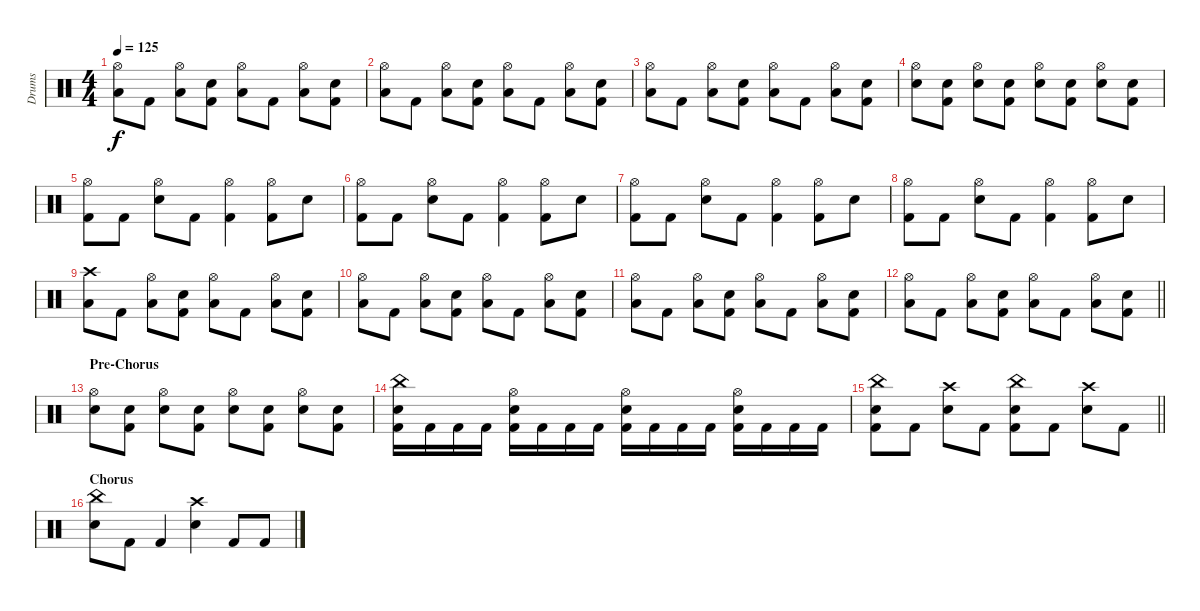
\track ("Drums" "Drums") {instrument percussion}
\staff {score}
\articulation defaults
\ts (4 4)
\tempo 125
\clef neutral
\ks c
("Hi-Hat (open)" "Low Tom (hit)").8{dy f} "Kick (hit) 2".8 ("Hi-Hat (open)" "Low Tom (hit)").8 ("Kick (hit) 2" "Electric Snare (hit)").8 ("Hi-Hat (open)" "Low Tom (hit)").8 "Kick (hit) 2".8 ("Hi-Hat (open)" "Low Tom (hit)").8 ("Kick (hit) 2" "Electric Snare (hit)").8 |
("Hi-Hat (open)" "Low Tom (hit)").8 "Kick (hit) 2".8 ("Hi-Hat (open)" "Low Tom (hit)").8 ("Kick (hit) 2" "Electric Snare (hit)").8 ("Hi-Hat (open)" "Low Tom (hit)").8 "Kick (hit) 2".8 ("Hi-Hat (open)" "Low Tom (hit)").8 ("Kick (hit) 2" "Electric Snare (hit)").8 |
("Hi-Hat (open)" "Low Tom (hit)").8 "Kick (hit) 2".8 ("Hi-Hat (open)" "Low Tom (hit)").8 ("Kick (hit) 2" "Electric Snare (hit)").8 ("Hi-Hat (open)" "Low Tom (hit)").8 "Kick (hit) 2".8 ("Hi-Hat (open)" "Low Tom (hit)").8 ("Kick (hit) 2" "Electric Snare (hit)").8 |
("Hi-Hat (open)" "Electric Snare (hit)").8 ("Kick (hit) 2" "Electric Snare (hit)").8 ("Hi-Hat (open)" "Electric Snare (hit)").8 ("Kick (hit) 2" "Electric Snare (hit)").8 ("Hi-Hat (open)" "Electric Snare (hit)").8 ("Kick (hit) 2" "Electric Snare (hit)").8 ("Hi-Hat (open)" "Electric Snare (hit)").8 ("Kick (hit) 2" "Electric Snare (hit)").8 |
("Hi-Hat (open)" "Kick (hit) 2").8 "Kick (hit) 2".8 ("Hi-Hat (open)" "Electric Snare (hit)").8 "Kick (hit) 2".8 ("Hi-Hat (open)" "Kick (hit) 2").4 ("Hi-Hat (open)" "Kick (hit) 2").8 "Electric Snare (hit)".8 |
("Hi-Hat (open)" "Kick (hit) 2").8 "Kick (hit) 2".8 ("Hi-Hat (open)" "Electric Snare (hit)").8 "Kick (hit) 2".8 ("Hi-Hat (open)" "Kick (hit) 2").4 ("Hi-Hat (open)" "Kick (hit) 2").8 "Electric Snare (hit)".8 |
("Hi-Hat (open)" "Kick (hit) 2").8 "Kick (hit) 2".8 ("Hi-Hat (open)" "Electric Snare (hit)").8 "Kick (hit) 2".8 ("Hi-Hat (open)" "Kick (hit) 2").4 ("Hi-Hat (open)" "Kick (hit) 2").8 "Electric Snare (hit)".8 |
("Hi-Hat (open)" "Kick (hit) 2").8 "Kick (hit) 2".8 ("Hi-Hat (open)" "Electric Snare (hit)").8 "Kick (hit) 2".8 ("Hi-Hat (open)" "Kick (hit) 2").4 ("Hi-Hat (open)" "Kick (hit) 2").8 "Electric Snare (hit)".8 |
("Crash high (hit)" "Low Tom (hit)").8 "Kick (hit) 2".8 ("Hi-Hat (open)" "Low Tom (hit)").8 ("Kick (hit) 2" "Electric Snare (hit)").8 ("Hi-Hat (open)" "Low Tom (hit)").8 "Kick (hit) 2".8 ("Hi-Hat (open)" "Low Tom (hit)").8 ("Kick (hit) 2" "Electric Snare (hit)").8 |
("Hi-Hat (open)" "Low Tom (hit)").8 "Kick (hit) 2".8 ("Hi-Hat (open)" "Low Tom (hit)").8 ("Kick (hit) 2" "Electric Snare (hit)").8 ("Hi-Hat (open)" "Low Tom (hit)").8 "Kick (hit) 2".8 ("Hi-Hat (open)" "Low Tom (hit)").8 ("Kick (hit) 2" "Electric Snare (hit)").8 |
("Hi-Hat (open)" "Low Tom (hit)").8 "Kick (hit) 2".8 ("Hi-Hat (open)" "Low Tom (hit)").8 ("Kick (hit) 2" "Electric Snare (hit)").8 ("Hi-Hat (open)" "Low Tom (hit)").8 "Kick (hit) 2".8 ("Hi-Hat (open)" "Low Tom (hit)").8 ("Kick (hit) 2" "Electric Snare (hit)").8 |
\barLineRight lightlight
("Hi-Hat (open)" "Low Tom (hit)").8 "Kick (hit) 2".8 ("Hi-Hat (open)" "Low Tom (hit)").8 ("Kick (hit) 2" "Electric Snare (hit)").8 ("Hi-Hat (open)" "Low Tom (hit)").8 "Kick (hit) 2".8 ("Hi-Hat (open)" "Low Tom (hit)").8 ("Kick (hit) 2" "Electric Snare (hit)").8 |
\section ("" "Pre-Chorus")
("Hi-Hat (open)" "Electric Snare (hit)").8 ("Kick (hit) 2" "Electric Snare (hit)").8 ("Hi-Hat (open)" "Electric Snare (hit)").8 ("Kick (hit) 2" "Electric Snare (hit)").8 ("Hi-Hat (open)" "Electric Snare (hit)").8 ("Kick (hit) 2" "Electric Snare (hit)").8 ("Hi-Hat (open)" "Electric Snare (hit)").8 ("Kick (hit) 2" "Electric Snare (hit)").8 |
("China (hit)" "Kick (hit) 2" "Electric Snare (hit)").16 "Kick (hit) 2".16 "Kick (hit) 2".16 "Kick (hit) 2".16 ("Hi-Hat (open)" "Kick (hit) 2" "Electric Snare (hit)").16 "Kick (hit) 2".16 "Kick (hit) 2".16 "Kick (hit) 2".16 ("Hi-Hat (open)" "Kick (hit) 2" "Electric Snare (hit)").16 "Kick (hit) 2".16 "Kick (hit) 2".16 "Kick (hit) 2".16 ("Hi-Hat (open)" "Kick (hit) 2" "Electric Snare (hit)").16 "Kick (hit) 2".16 "Kick (hit) 2".16 "Kick (hit) 2".16 |
\barLineRight lightlight
("China (hit)" "Kick (hit) 2" "Electric Snare (hit)").8 "Kick (hit) 2".8 ("Crash high (hit)" "Electric Snare (hit)").8 "Kick (hit) 2".8 ("China (hit)" "Kick (hit) 2" "Electric Snare (hit)").8 "Kick (hit) 2".8 ("Crash high (hit)" "Electric Snare (hit)").8 "Kick (hit) 2".8 |
\section ("" "Chorus")
("China (hit)" "Electric Snare (hit)").8 "Kick (hit) 2".8 "Kick (hit) 2".4 ("Crash high (hit)" "Electric Snare (hit)").4 "Kick (hit) 2".8 "Kick (hit) 2".8
